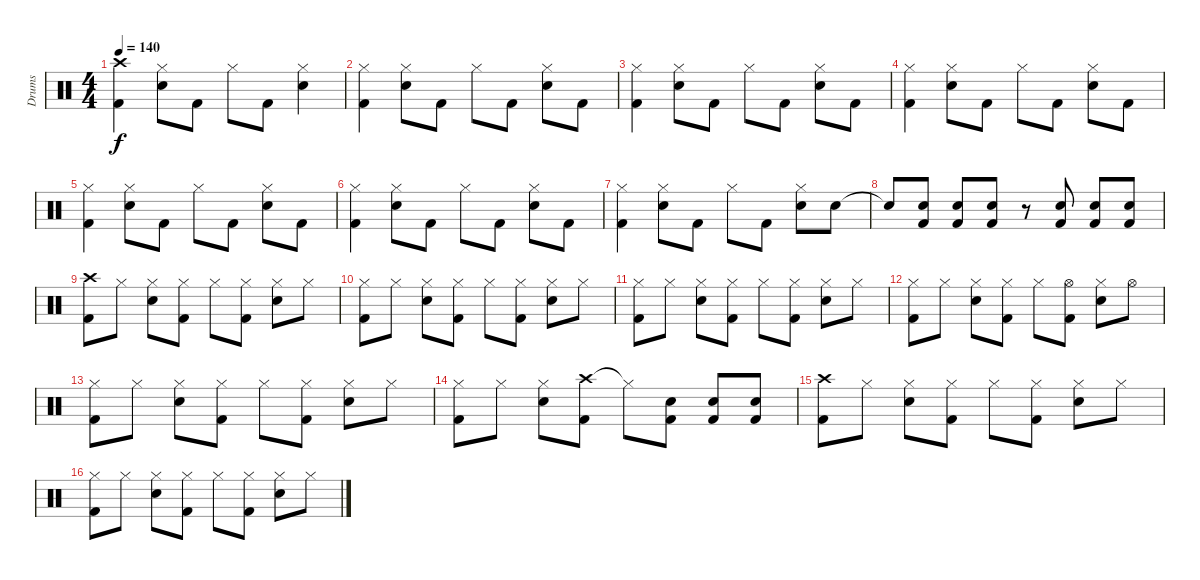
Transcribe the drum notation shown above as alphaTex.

\track ("Drums" "Drums") {instrument percussion}
\staff {score}
\articulation defaults
\ts (4 4)
\tempo 140
\clef neutral
\ks c
("Crash high (hit)" "Kick (hit) 2").4{dy f} ("Hi-Hat (closed)" "Snare (hit) 2").8 "Kick (hit) 2".8 "Hi-Hat (closed)".8 "Kick (hit) 2".8 ("Hi-Hat (closed)" "Snare (hit) 2").4 |
("Hi-Hat (closed)" "Kick (hit) 2").4 ("Hi-Hat (closed)" "Snare (hit) 2").8 "Kick (hit) 2".8 "Hi-Hat (closed)".8 "Kick (hit) 2".8 ("Hi-Hat (closed)" "Snare (hit) 2").8 "Kick (hit) 2".8 |
("Hi-Hat (closed)" "Kick (hit) 2").4 ("Hi-Hat (closed)" "Snare (hit) 2").8 "Kick (hit) 2".8 "Hi-Hat (closed)".8 "Kick (hit) 2".8 ("Hi-Hat (closed)" "Snare (hit) 2").8 "Kick (hit) 2".8 |
("Hi-Hat (closed)" "Kick (hit) 2").4 ("Hi-Hat (closed)" "Snare (hit) 2").8 "Kick (hit) 2".8 "Hi-Hat (closed)".8 "Kick (hit) 2".8 ("Hi-Hat (closed)" "Snare (hit) 2").8 "Kick (hit) 2".8 |
("Hi-Hat (closed)" "Kick (hit) 2").4 ("Hi-Hat (closed)" "Snare (hit) 2").8 "Kick (hit) 2".8 "Hi-Hat (closed)".8 "Kick (hit) 2".8 ("Hi-Hat (closed)" "Snare (hit) 2").8 "Kick (hit) 2".8 |
("Hi-Hat (closed)" "Kick (hit) 2").4 ("Hi-Hat (closed)" "Snare (hit) 2").8 "Kick (hit) 2".8 "Hi-Hat (closed)".8 "Kick (hit) 2".8 ("Hi-Hat (closed)" "Snare (hit) 2").8 "Kick (hit) 2".8 |
("Hi-Hat (closed)" "Kick (hit) 2").4 ("Hi-Hat (closed)" "Snare (hit) 2").8 "Kick (hit) 2".8 "Hi-Hat (closed)".8 "Kick (hit) 2".8 ("Hi-Hat (closed)" "Snare (hit) 2").8 "Snare (hit) 2".8 |
"Snare (hit) 2"{t}.8 ("Snare (hit) 2" "Kick (hit) 2").8 ("Snare (hit) 2" "Kick (hit) 2").8 ("Snare (hit) 2" "Kick (hit) 2").8 r.8 ("Snare (hit) 2" "Kick (hit) 2").8 ("Snare (hit) 2" "Kick (hit) 2").8 ("Snare (hit) 2" "Kick (hit) 2").8 |
("Crash high (hit)" "Kick (hit) 2").8 "Hi-Hat (closed)".8 ("Hi-Hat (closed)" "Snare (hit) 2").8 ("Hi-Hat (closed)" "Kick (hit) 2").8 "Hi-Hat (closed)".8 ("Hi-Hat (closed)" "Kick (hit) 2").8 ("Hi-Hat (closed)" "Snare (hit) 2").8 "Hi-Hat (closed)".8 |
("Hi-Hat (closed)" "Kick (hit) 2").8 "Hi-Hat (closed)".8 ("Hi-Hat (closed)" "Snare (hit) 2").8 ("Hi-Hat (closed)" "Kick (hit) 2").8 "Hi-Hat (closed)".8 ("Hi-Hat (closed)" "Kick (hit) 2").8 ("Hi-Hat (closed)" "Snare (hit) 2").8 "Hi-Hat (closed)".8 |
("Hi-Hat (closed)" "Kick (hit) 2").8 "Hi-Hat (closed)".8 ("Hi-Hat (closed)" "Snare (hit) 2").8 ("Hi-Hat (closed)" "Kick (hit) 2").8 "Hi-Hat (closed)".8 ("Hi-Hat (closed)" "Kick (hit) 2").8 ("Hi-Hat (closed)" "Snare (hit) 2").8 "Hi-Hat (closed)".8 |
("Hi-Hat (closed)" "Kick (hit) 2").8 "Hi-Hat (closed)".8 ("Hi-Hat (closed)" "Snare (hit) 2").8 ("Hi-Hat (closed)" "Kick (hit) 2").8 "Hi-Hat (closed)".8 ("Hi-Hat (open)" "Kick (hit) 2").8 ("Hi-Hat (closed)" "Snare (hit) 2").8 "Hi-Hat (open)".8 |
("Hi-Hat (closed)" "Kick (hit) 2").8 "Hi-Hat (closed)".8 ("Hi-Hat (closed)" "Snare (hit) 2").8 ("Hi-Hat (closed)" "Kick (hit) 2").8 "Hi-Hat (closed)".8 ("Hi-Hat (closed)" "Kick (hit) 2").8 ("Hi-Hat (closed)" "Snare (hit) 2").8 "Hi-Hat (closed)".8 |
("Hi-Hat (closed)" "Kick (hit) 2").8 "Hi-Hat (closed)".8 ("Hi-Hat (closed)" "Snare (hit) 2").8 ("Crash high (hit)" "Kick (hit) 2").8 "Hi-Hat (closed)"{t}.8 ("Snare (hit) 2" "Kick (hit) 2").8 ("Snare (hit) 2" "Kick (hit) 2").8 ("Snare (hit) 2" "Kick (hit) 2").8 |
("Crash high (hit)" "Kick (hit) 2").8 "Hi-Hat (closed)".8 ("Hi-Hat (closed)" "Snare (hit) 2").8 ("Hi-Hat (closed)" "Kick (hit) 2").8 "Hi-Hat (closed)".8 ("Hi-Hat (closed)" "Kick (hit) 2").8 ("Hi-Hat (closed)" "Snare (hit) 2").8 "Hi-Hat (closed)".8 |
("Hi-Hat (closed)" "Kick (hit) 2").8 "Hi-Hat (closed)".8 ("Hi-Hat (closed)" "Snare (hit) 2").8 ("Hi-Hat (closed)" "Kick (hit) 2").8 "Hi-Hat (closed)".8 ("Hi-Hat (closed)" "Kick (hit) 2").8 ("Hi-Hat (closed)" "Snare (hit) 2").8 "Hi-Hat (closed)".8
